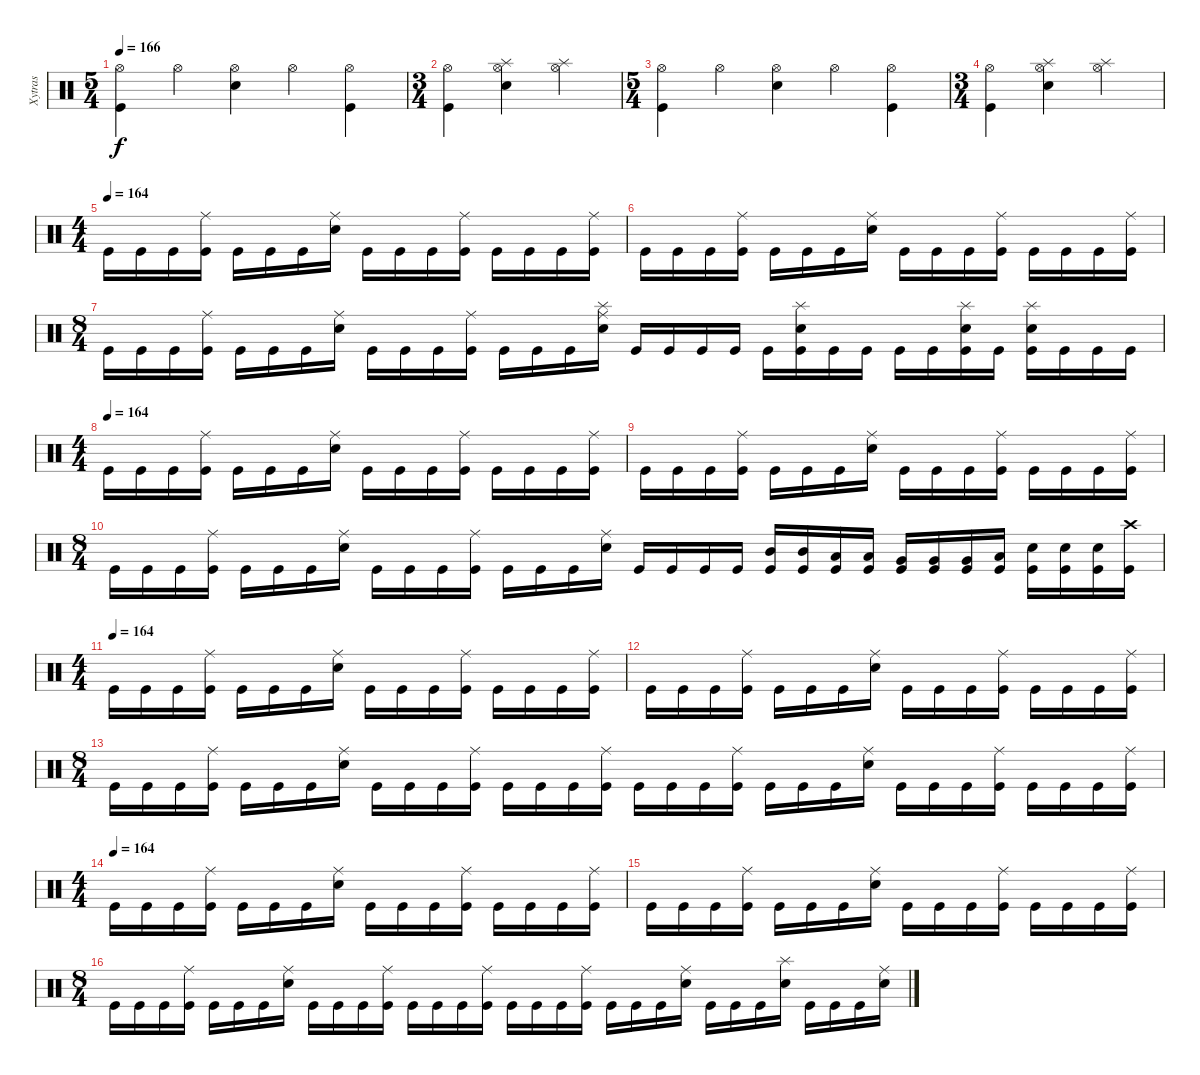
\track ("Xytras" "Xytras") {instrument percussion}
\staff {score}
\articulation defaults
\ts (5 4)
\tempo 166
\clef neutral
\ks c
("Hi-Hat (open)" "Kick (hit)").4{dy f} "Hi-Hat (open)".4 ("Hi-Hat (open)" "Electric Snare (hit)").4 "Hi-Hat (open)".4 ("Hi-Hat (open)" "Kick (hit)").4 |
\ts (3 4)
("Hi-Hat (open)" "Kick (hit)").4 ("Hi-Hat (open)" "Electric Snare (hit)" "Splash (hit)").4 ("Hi-Hat (open)" "Splash (hit)").4 |
\ts (5 4)
("Hi-Hat (open)" "Kick (hit)").4 "Hi-Hat (open)".4 ("Hi-Hat (open)" "Electric Snare (hit)").4 "Hi-Hat (open)".4 ("Hi-Hat (open)" "Kick (hit)").4 |
\ts (3 4)
("Hi-Hat (open)" "Kick (hit)").4 ("Hi-Hat (open)" "Electric Snare (hit)" "Splash (hit)").4 ("Hi-Hat (open)" "Splash (hit)").4 |
\ts (4 4)
\tempo (164)
"Kick (hit)".16 "Kick (hit)".16 "Kick (hit)".16 ("Kick (hit)" "Ride (middle)").16 "Kick (hit)".16 "Kick (hit)".16 "Kick (hit)".16 ("Ride (middle)" "Electric Snare (hit)").16 "Kick (hit)".16 "Kick (hit)".16 "Kick (hit)".16 ("Kick (hit)" "Ride (middle)").16 "Kick (hit)".16 "Kick (hit)".16 "Kick (hit)".16 ("Kick (hit)" "Ride (middle)").16 |
"Kick (hit)".16 "Kick (hit)".16 "Kick (hit)".16 ("Kick (hit)" "Ride (middle)").16 "Kick (hit)".16 "Kick (hit)".16 "Kick (hit)".16 ("Ride (middle)" "Electric Snare (hit)").16 "Kick (hit)".16 "Kick (hit)".16 "Kick (hit)".16 ("Kick (hit)" "Ride (middle)").16 "Kick (hit)".16 "Kick (hit)".16 "Kick (hit)".16 ("Kick (hit)" "Ride (middle)").16 |
\ts (8 4)
"Kick (hit)".16 "Kick (hit)".16 "Kick (hit)".16 ("Kick (hit)" "Ride (middle)").16 "Kick (hit)".16 "Kick (hit)".16 "Kick (hit)".16 ("Ride (middle)" "Electric Snare (hit)").16 "Kick (hit)".16 "Kick (hit)".16 "Kick (hit)".16 ("Kick (hit)" "Ride (middle)").16 "Kick (hit)".16 "Kick (hit)".16 "Kick (hit)".16 ("Ride (middle)" "Electric Snare (hit)" "Splash (hit)").16 "Kick (hit)".16 "Kick (hit)".16 "Kick (hit)".16 "Kick (hit)".16 "Kick (hit)".16 ("Kick (hit)" "Electric Snare (hit)" "Splash (hit)").16 "Kick (hit)".16 "Kick (hit)".16 "Kick (hit)".16 "Kick (hit)".16 ("Kick (hit)" "Electric Snare (hit)" "Splash (hit)").16 "Kick (hit)".16 ("Kick (hit)" "Electric Snare (hit)" "Splash (hit)").16 "Kick (hit)".16 "Kick (hit)".16 "Kick (hit)".16 |
\ts (4 4)
\tempo (164)
"Kick (hit)".16 "Kick (hit)".16 "Kick (hit)".16 ("Kick (hit)" "Ride (middle)").16 "Kick (hit)".16 "Kick (hit)".16 "Kick (hit)".16 ("Ride (middle)" "Electric Snare (hit)").16 "Kick (hit)".16 "Kick (hit)".16 "Kick (hit)".16 ("Kick (hit)" "Ride (middle)").16 "Kick (hit)".16 "Kick (hit)".16 "Kick (hit)".16 ("Kick (hit)" "Ride (middle)").16 |
"Kick (hit)".16 "Kick (hit)".16 "Kick (hit)".16 ("Kick (hit)" "Ride (middle)").16 "Kick (hit)".16 "Kick (hit)".16 "Kick (hit)".16 ("Ride (middle)" "Electric Snare (hit)").16 "Kick (hit)".16 "Kick (hit)".16 "Kick (hit)".16 ("Kick (hit)" "Ride (middle)").16 "Kick (hit)".16 "Kick (hit)".16 "Kick (hit)".16 ("Kick (hit)" "Ride (middle)").16 |
\ts (8 4)
"Kick (hit)".16 "Kick (hit)".16 "Kick (hit)".16 ("Kick (hit)" "Ride (middle)").16 "Kick (hit)".16 "Kick (hit)".16 "Kick (hit)".16 ("Ride (middle)" "Electric Snare (hit)").16 "Kick (hit)".16 "Kick (hit)".16 "Kick (hit)".16 ("Kick (hit)" "Ride (middle)").16 "Kick (hit)".16 "Kick (hit)".16 "Kick (hit)".16 ("Ride (middle)" "Electric Snare (hit)").16 "Kick (hit)".16 "Kick (hit)".16 "Kick (hit)".16 "Kick (hit)".16 ("Kick (hit)" "Mid Tom (hit)").16 ("Kick (hit)" "Mid Tom (hit)").16 ("Kick (hit)" "Low Tom (hit)").16 ("Kick (hit)" "Low Tom (hit)").16 ("Kick (hit)" "Very Low Tom (hit)").16 ("Kick (hit)" "Very Low Tom (hit)").16 ("Kick (hit)" "Very Low Tom (hit)").16 ("Kick (hit)" "Low Floor Tom (hit)").16 ("Kick (hit)" "Snare (hit) 2").16 ("Kick (hit)" "Snare (hit) 2").16 ("Kick (hit)" "Snare (hit) 2").16 ("Kick (hit)" "Crash high (hit)").16 |
\ts (4 4)
\tempo (164)
"Kick (hit)".16 "Kick (hit)".16 "Kick (hit)".16 ("Kick (hit)" "Ride (middle)").16 "Kick (hit)".16 "Kick (hit)".16 "Kick (hit)".16 ("Ride (middle)" "Electric Snare (hit)").16 "Kick (hit)".16 "Kick (hit)".16 "Kick (hit)".16 ("Kick (hit)" "Ride (middle)").16 "Kick (hit)".16 "Kick (hit)".16 "Kick (hit)".16 ("Kick (hit)" "Ride (middle)").16 |
"Kick (hit)".16 "Kick (hit)".16 "Kick (hit)".16 ("Kick (hit)" "Ride (middle)").16 "Kick (hit)".16 "Kick (hit)".16 "Kick (hit)".16 ("Ride (middle)" "Electric Snare (hit)").16 "Kick (hit)".16 "Kick (hit)".16 "Kick (hit)".16 ("Kick (hit)" "Ride (middle)").16 "Kick (hit)".16 "Kick (hit)".16 "Kick (hit)".16 ("Kick (hit)" "Ride (middle)").16 |
\ts (8 4)
"Kick (hit)".16 "Kick (hit)".16 "Kick (hit)".16 ("Kick (hit)" "Ride (middle)").16 "Kick (hit)".16 "Kick (hit)".16 "Kick (hit)".16 ("Ride (middle)" "Electric Snare (hit)").16 "Kick (hit)".16 "Kick (hit)".16 "Kick (hit)".16 ("Kick (hit)" "Ride (middle)").16 "Kick (hit)".16 "Kick (hit)".16 "Kick (hit)".16 ("Kick (hit)" "Ride (middle)").16 "Kick (hit)".16 "Kick (hit)".16 "Kick (hit)".16 ("Kick (hit)" "Ride (middle)").16 "Kick (hit)".16 "Kick (hit)".16 "Kick (hit)".16 ("Ride (middle)" "Electric Snare (hit)").16 "Kick (hit)".16 "Kick (hit)".16 "Kick (hit)".16 ("Kick (hit)" "Ride (middle)").16 "Kick (hit)".16 "Kick (hit)".16 "Kick (hit)".16 ("Ride (middle)" "Kick (hit)").16 |
\ts (4 4)
\tempo (164)
"Kick (hit)".16 "Kick (hit)".16 "Kick (hit)".16 ("Kick (hit)" "Ride (middle)").16 "Kick (hit)".16 "Kick (hit)".16 "Kick (hit)".16 ("Ride (middle)" "Electric Snare (hit)").16 "Kick (hit)".16 "Kick (hit)".16 "Kick (hit)".16 ("Kick (hit)" "Ride (middle)").16 "Kick (hit)".16 "Kick (hit)".16 "Kick (hit)".16 ("Kick (hit)" "Ride (middle)").16 |
"Kick (hit)".16 "Kick (hit)".16 "Kick (hit)".16 ("Kick (hit)" "Ride (middle)").16 "Kick (hit)".16 "Kick (hit)".16 "Kick (hit)".16 ("Ride (middle)" "Electric Snare (hit)").16 "Kick (hit)".16 "Kick (hit)".16 "Kick (hit)".16 ("Kick (hit)" "Ride (middle)").16 "Kick (hit)".16 "Kick (hit)".16 "Kick (hit)".16 ("Kick (hit)" "Ride (middle)").16 |
\ts (8 4)
"Kick (hit)".16 "Kick (hit)".16 "Kick (hit)".16 ("Kick (hit)" "Ride (middle)").16 "Kick (hit)".16 "Kick (hit)".16 "Kick (hit)".16 ("Ride (middle)" "Electric Snare (hit)").16 "Kick (hit)".16 "Kick (hit)".16 "Kick (hit)".16 ("Kick (hit)" "Ride (middle)").16 "Kick (hit)".16 "Kick (hit)".16 "Kick (hit)".16 ("Kick (hit)" "Ride (middle)").16 "Kick (hit)".16 "Kick (hit)".16 "Kick (hit)".16 ("Kick (hit)" "Ride (middle)").16 "Kick (hit)".16 "Kick (hit)".16 "Kick (hit)".16 ("Ride (middle)" "Electric Snare (hit)").16 "Kick (hit)".16 "Kick (hit)".16 "Kick (hit)".16 ("Splash (hit)" "Electric Snare (hit)").16 "Kick (hit)".16 "Kick (hit)".16 "Kick (hit)".16 ("Ride (middle)" "Electric Snare (hit)").16
